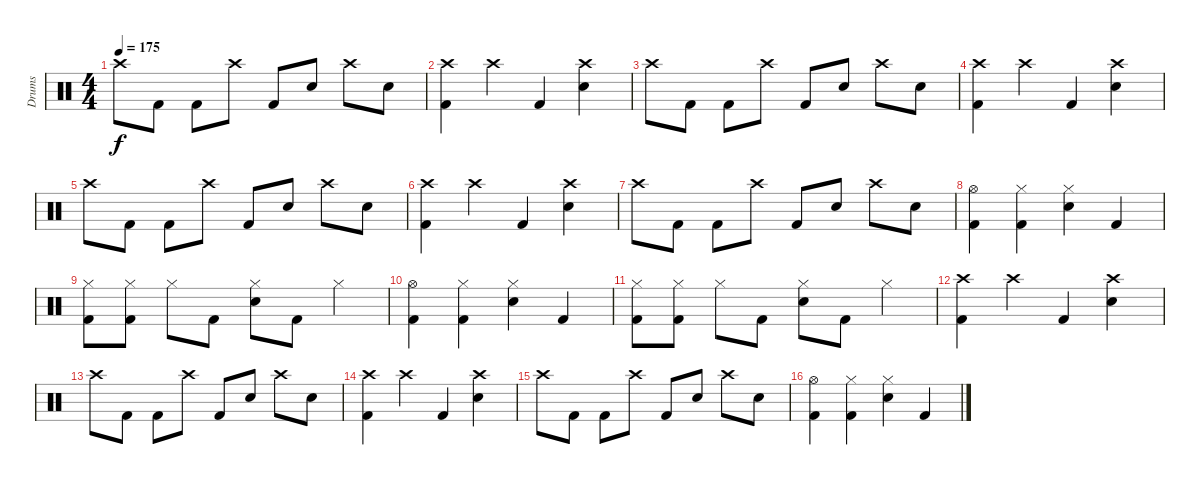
\track ("Drums" "Drums") {instrument percussion}
\staff {score}
\articulation defaults
\ts (4 4)
\tempo 175
\clef neutral
\ks c "Crash high (hit)".8{dy f} "Kick (hit) 2".8 "Kick (hit) 2".8 "Crash high (hit)".8 "Kick (hit) 2".8 "Snare (hit) 2".8 "Crash high (hit)".8 "Snare (hit) 2".8
|
("Crash high (hit)" "Kick (hit) 2").4 "Crash high (hit)".4 "Kick (hit) 2".4 ("Crash high (hit)" "Snare (hit) 2").4 |
"Crash high (hit)".8 "Kick (hit) 2".8 "Kick (hit) 2".8 "Crash high (hit)".8 "Kick (hit) 2".8 "Snare (hit) 2".8 "Crash high (hit)".8 "Snare (hit) 2".8 |
("Crash high (hit)" "Kick (hit) 2").4 "Crash high (hit)".4 "Kick (hit) 2".4 ("Crash high (hit)" "Snare (hit) 2").4 |
"Crash high (hit)".8 "Kick (hit) 2".8 "Kick (hit) 2".8 "Crash high (hit)".8 "Kick (hit) 2".8 "Snare (hit) 2".8 "Crash high (hit)".8 "Snare (hit) 2".8 |
("Crash high (hit)" "Kick (hit) 2").4 "Crash high (hit)".4 "Kick (hit) 2".4 ("Crash high (hit)" "Snare (hit) 2").4 |
"Crash high (hit)".8 "Kick (hit) 2".8 "Kick (hit) 2".8 "Crash high (hit)".8 "Kick (hit) 2".8 "Snare (hit) 2".8 "Crash high (hit)".8 "Snare (hit) 2".8 |
("Hi-Hat (open)" "Kick (hit) 2").4 ("Hi-Hat (closed)" "Kick (hit) 2").4 ("Hi-Hat (closed)" "Snare (hit) 2").4 "Kick (hit) 2".4 |
("Hi-Hat (closed)" "Kick (hit) 2").8 ("Hi-Hat (closed)" "Kick (hit) 2").8 "Hi-Hat (closed)".8 "Kick (hit) 2".8 ("Hi-Hat (closed)" "Snare (hit) 2").8 "Kick (hit) 2".8 "Hi-Hat (closed)".4 |
("Hi-Hat (open)" "Kick (hit) 2").4 ("Hi-Hat (closed)" "Kick (hit) 2").4 ("Hi-Hat (closed)" "Snare (hit) 2").4 "Kick (hit) 2".4 |
("Hi-Hat (closed)" "Kick (hit) 2").8 ("Hi-Hat (closed)" "Kick (hit) 2").8 "Hi-Hat (closed)".8 "Kick (hit) 2".8 ("Hi-Hat (closed)" "Snare (hit) 2").8 "Kick (hit) 2".8 "Hi-Hat (closed)".4 |
("Crash high (hit)" "Kick (hit) 2").4 "Crash high (hit)".4 "Kick (hit) 2".4 ("Crash high (hit)" "Snare (hit) 2").4 |
"Crash high (hit)".8 "Kick (hit) 2".8 "Kick (hit) 2".8 "Crash high (hit)".8 "Kick (hit) 2".8 "Snare (hit) 2".8 "Crash high (hit)".8 "Snare (hit) 2".8 |
("Crash high (hit)" "Kick (hit) 2").4 "Crash high (hit)".4 "Kick (hit) 2".4 ("Crash high (hit)" "Snare (hit) 2").4 |
"Crash high (hit)".8 "Kick (hit) 2".8 "Kick (hit) 2".8 "Crash high (hit)".8 "Kick (hit) 2".8 "Snare (hit) 2".8 "Crash high (hit)".8 "Snare (hit) 2".8 |
("Hi-Hat (open)" "Kick (hit) 2").4 ("Hi-Hat (closed)" "Kick (hit) 2").4 ("Hi-Hat (closed)" "Snare (hit) 2").4 "Kick (hit) 2".4
